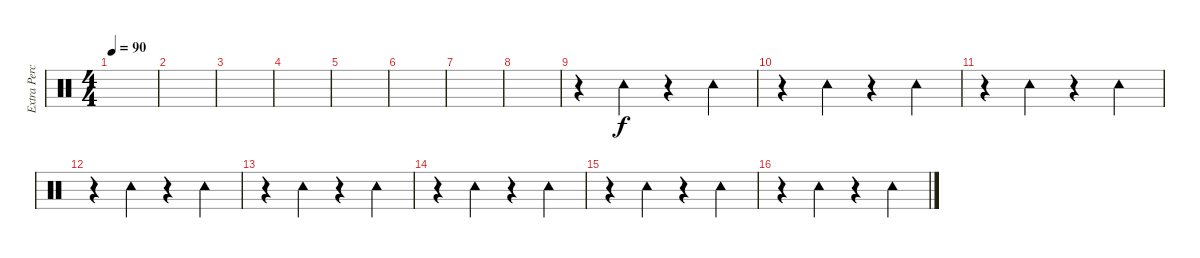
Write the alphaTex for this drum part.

\track ("Extra Percussion" "Extra Perc") {instrument percussion}
\staff {score}
\articulation defaults
\ts (4 4)
\tempo 90
\clef neutral
\ks c
|
|
|
|
|
|
|
|
r.4 "Tambourine (hit)".4 r.4 "Tambourine (hit)".4 |
r.4 "Tambourine (hit)".4 r.4 "Tambourine (hit)".4 |
r.4 "Tambourine (hit)".4 r.4 "Tambourine (hit)".4 |
r.4 "Tambourine (hit)".4 r.4 "Tambourine (hit)".4 |
r.4 "Tambourine (hit)".4 r.4 "Tambourine (hit)".4 |
r.4 "Tambourine (hit)".4 r.4 "Tambourine (hit)".4 |
r.4 "Tambourine (hit)".4 r.4 "Tambourine (hit)".4 |
r.4 "Tambourine (hit)".4 r.4 "Tambourine (hit)".4
